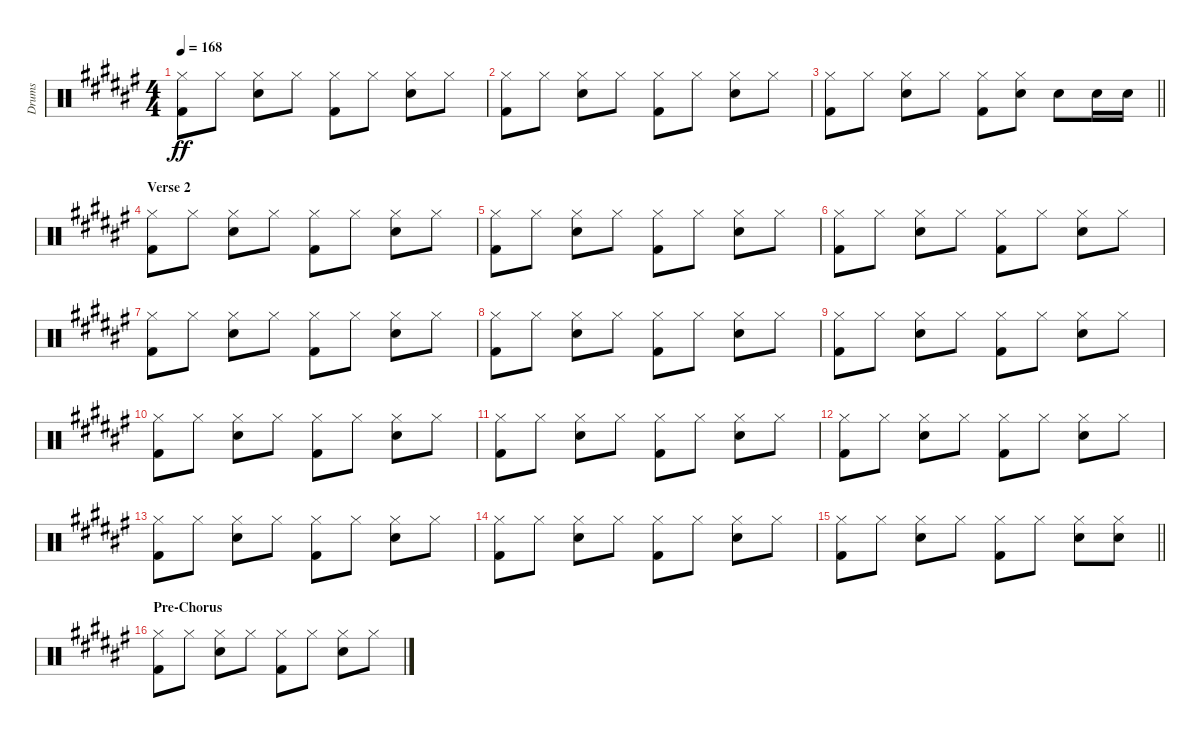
\track ("Drums" "Drums") {instrument percussion}
\staff {score}
\articulation defaults
\ts (4 4)
\tempo 168
\clef neutral
\ks f#
("Hi-Hat (closed)" "Kick (hit) 2").8{dy ff} "Hi-Hat (closed)".8 ("Hi-Hat (closed)" "Electric Snare (hit)").8 "Hi-Hat (closed)".8 ("Hi-Hat (closed)" "Kick (hit) 2").8 "Hi-Hat (closed)".8 ("Hi-Hat (closed)" "Electric Snare (hit)").8 "Hi-Hat (closed)".8 |
("Hi-Hat (closed)" "Kick (hit) 2").8 "Hi-Hat (closed)".8 ("Hi-Hat (closed)" "Electric Snare (hit)").8 "Hi-Hat (closed)".8 ("Hi-Hat (closed)" "Kick (hit) 2").8 "Hi-Hat (closed)".8 ("Hi-Hat (closed)" "Electric Snare (hit)").8 "Hi-Hat (closed)".8 |
\barLineRight lightlight
("Hi-Hat (closed)" "Kick (hit) 2").8 "Hi-Hat (closed)".8 ("Hi-Hat (closed)" "Electric Snare (hit)").8 "Hi-Hat (closed)".8 ("Hi-Hat (closed)" "Kick (hit) 2").8 ("Hi-Hat (closed)" "Electric Snare (hit)").8 "Electric Snare (hit)".8 "Electric Snare (hit)".16 "Electric Snare (hit)".16 |
\section ("" "Verse 2")
("Hi-Hat (closed)" "Kick (hit) 2").8 "Hi-Hat (closed)".8 ("Hi-Hat (closed)" "Electric Snare (hit)").8 "Hi-Hat (closed)".8 ("Hi-Hat (closed)" "Kick (hit) 2").8 "Hi-Hat (closed)".8 ("Hi-Hat (closed)" "Electric Snare (hit)").8 "Hi-Hat (closed)".8 |
("Hi-Hat (closed)" "Kick (hit) 2").8 "Hi-Hat (closed)".8 ("Hi-Hat (closed)" "Electric Snare (hit)").8 "Hi-Hat (closed)".8 ("Hi-Hat (closed)" "Kick (hit) 2").8 "Hi-Hat (closed)".8 ("Hi-Hat (closed)" "Electric Snare (hit)").8 "Hi-Hat (closed)".8 |
("Hi-Hat (closed)" "Kick (hit) 2").8 "Hi-Hat (closed)".8 ("Hi-Hat (closed)" "Electric Snare (hit)").8 "Hi-Hat (closed)".8 ("Hi-Hat (closed)" "Kick (hit) 2").8 "Hi-Hat (closed)".8 ("Hi-Hat (closed)" "Electric Snare (hit)").8 "Hi-Hat (closed)".8 |
("Hi-Hat (closed)" "Kick (hit) 2").8 "Hi-Hat (closed)".8 ("Hi-Hat (closed)" "Electric Snare (hit)").8 "Hi-Hat (closed)".8 ("Hi-Hat (closed)" "Kick (hit) 2").8 "Hi-Hat (closed)".8 ("Hi-Hat (closed)" "Electric Snare (hit)").8 "Hi-Hat (closed)".8 |
("Hi-Hat (closed)" "Kick (hit) 2").8 "Hi-Hat (closed)".8 ("Hi-Hat (closed)" "Electric Snare (hit)").8 "Hi-Hat (closed)".8 ("Hi-Hat (closed)" "Kick (hit) 2").8 "Hi-Hat (closed)".8 ("Hi-Hat (closed)" "Electric Snare (hit)").8 "Hi-Hat (closed)".8 |
("Hi-Hat (closed)" "Kick (hit) 2").8 "Hi-Hat (closed)".8 ("Hi-Hat (closed)" "Electric Snare (hit)").8 "Hi-Hat (closed)".8 ("Hi-Hat (closed)" "Kick (hit) 2").8 "Hi-Hat (closed)".8 ("Hi-Hat (closed)" "Electric Snare (hit)").8 "Hi-Hat (closed)".8 |
("Hi-Hat (closed)" "Kick (hit) 2").8 "Hi-Hat (closed)".8 ("Hi-Hat (closed)" "Electric Snare (hit)").8 "Hi-Hat (closed)".8 ("Hi-Hat (closed)" "Kick (hit) 2").8 "Hi-Hat (closed)".8 ("Hi-Hat (closed)" "Electric Snare (hit)").8 "Hi-Hat (closed)".8 |
("Hi-Hat (closed)" "Kick (hit) 2").8 "Hi-Hat (closed)".8 ("Hi-Hat (closed)" "Electric Snare (hit)").8 "Hi-Hat (closed)".8 ("Hi-Hat (closed)" "Kick (hit) 2").8 "Hi-Hat (closed)".8 ("Hi-Hat (closed)" "Electric Snare (hit)").8 "Hi-Hat (closed)".8 |
("Hi-Hat (closed)" "Kick (hit) 2").8 "Hi-Hat (closed)".8 ("Hi-Hat (closed)" "Electric Snare (hit)").8 "Hi-Hat (closed)".8 ("Hi-Hat (closed)" "Kick (hit) 2").8 "Hi-Hat (closed)".8 ("Hi-Hat (closed)" "Electric Snare (hit)").8 "Hi-Hat (closed)".8 |
("Hi-Hat (closed)" "Kick (hit) 2").8 "Hi-Hat (closed)".8 ("Hi-Hat (closed)" "Electric Snare (hit)").8 "Hi-Hat (closed)".8 ("Hi-Hat (closed)" "Kick (hit) 2").8 "Hi-Hat (closed)".8 ("Hi-Hat (closed)" "Electric Snare (hit)").8 "Hi-Hat (closed)".8 |
("Hi-Hat (closed)" "Kick (hit) 2").8 "Hi-Hat (closed)".8 ("Hi-Hat (closed)" "Electric Snare (hit)").8 "Hi-Hat (closed)".8 ("Hi-Hat (closed)" "Kick (hit) 2").8 "Hi-Hat (closed)".8 ("Hi-Hat (closed)" "Electric Snare (hit)").8 "Hi-Hat (closed)".8 |
\barLineRight lightlight
("Hi-Hat (closed)" "Kick (hit) 2").8 "Hi-Hat (closed)".8 ("Hi-Hat (closed)" "Electric Snare (hit)").8 "Hi-Hat (closed)".8 ("Hi-Hat (closed)" "Kick (hit) 2").8 "Hi-Hat (closed)".8 ("Hi-Hat (closed)" "Electric Snare (hit)").8 ("Hi-Hat (closed)" "Electric Snare (hit)").8 |
\section ("" "Pre-Chorus")
("Hi-Hat (closed)" "Kick (hit) 2").8 "Hi-Hat (closed)".8 ("Hi-Hat (closed)" "Electric Snare (hit)").8 "Hi-Hat (closed)".8 ("Hi-Hat (closed)" "Kick (hit) 2").8 "Hi-Hat (closed)".8 ("Hi-Hat (closed)" "Electric Snare (hit)").8 "Hi-Hat (closed)".8
